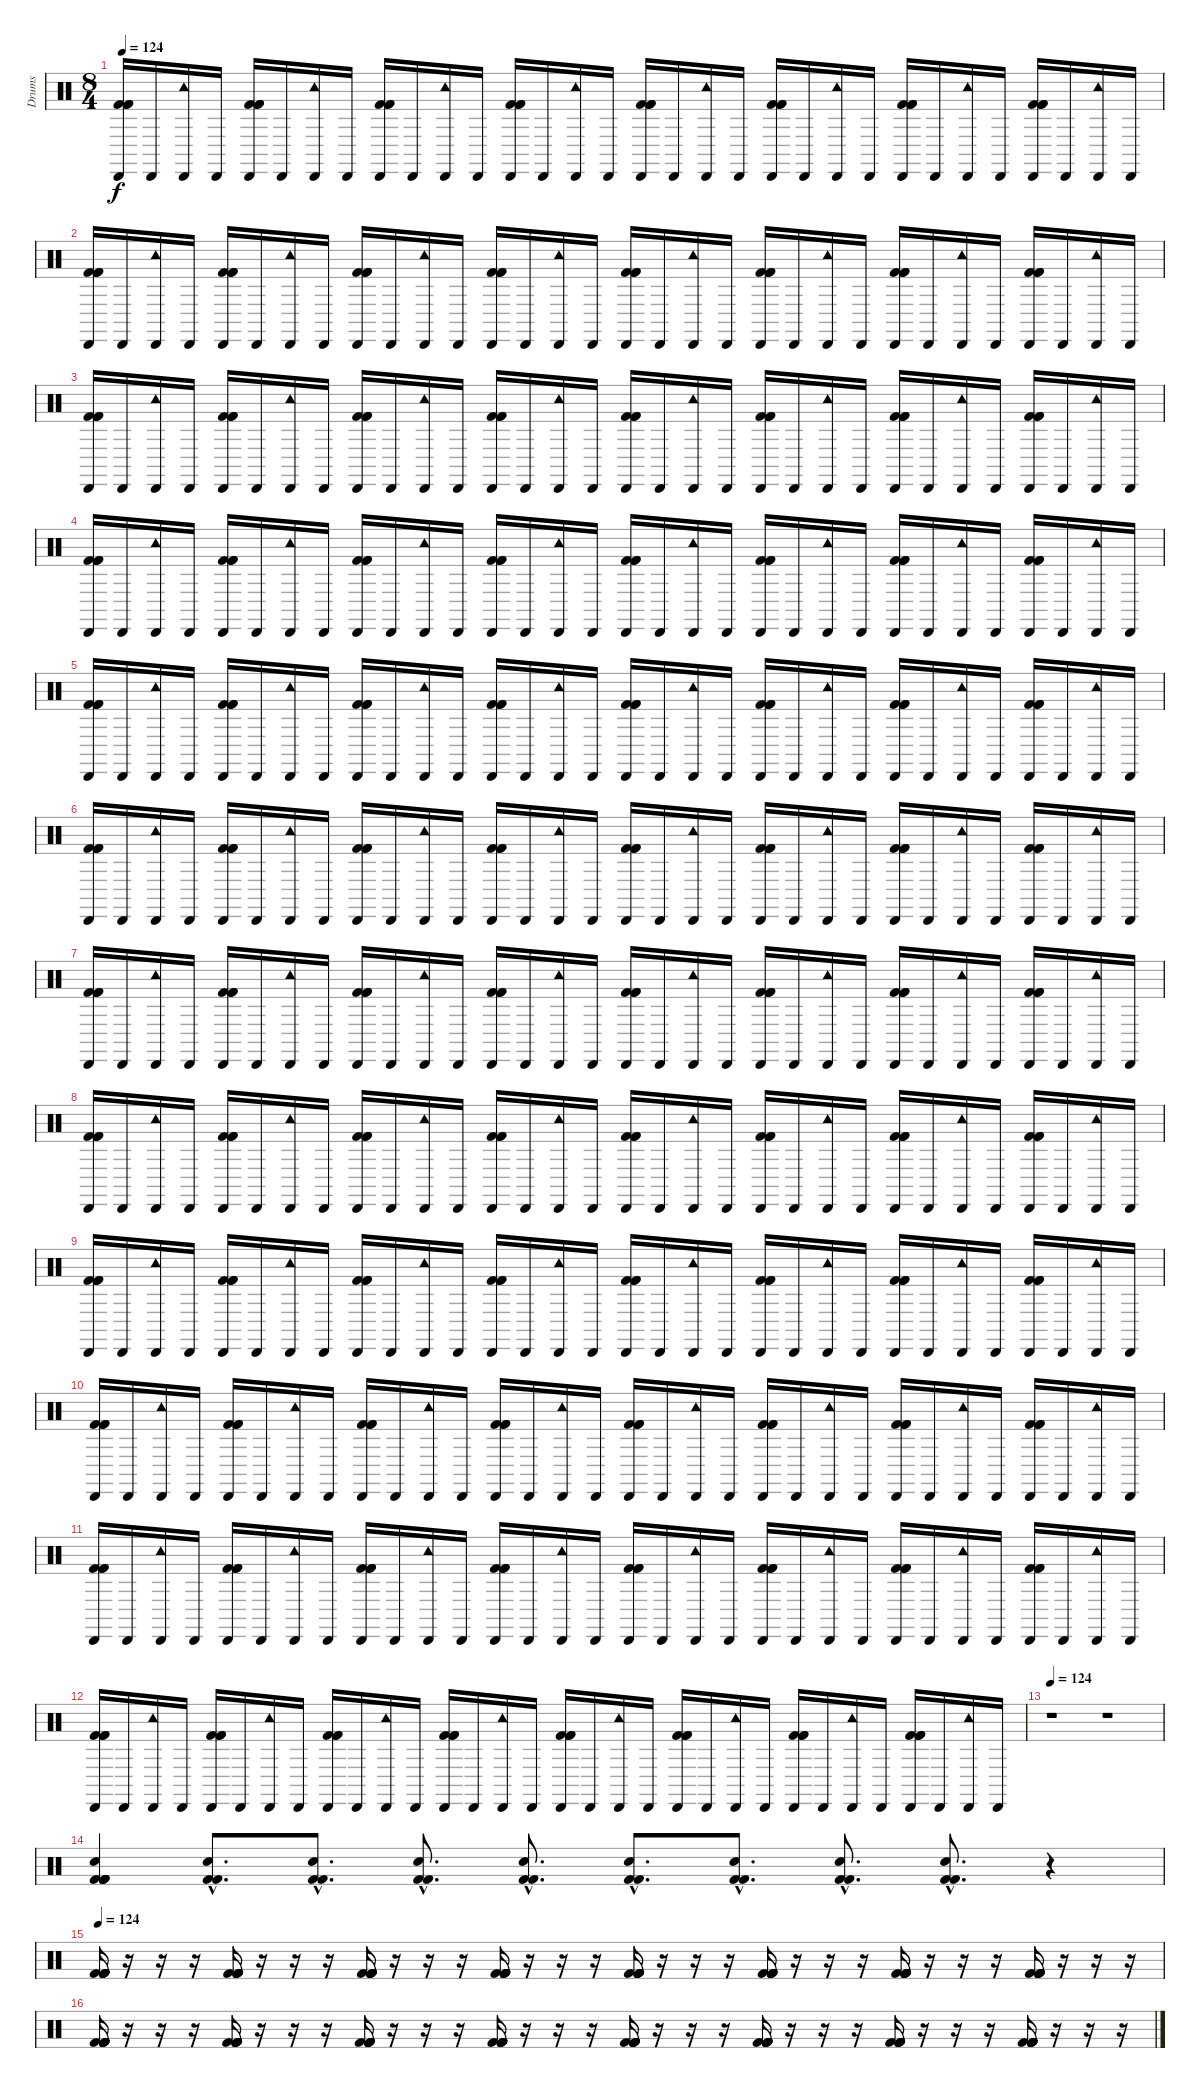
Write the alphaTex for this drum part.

\track ("Drums" "Drums") {instrument percussion}
\staff {score}
\articulation defaults
\ts (8 4)
\tempo 124
\clef neutral
\ks c
("Cabasa (hit)" "Kick (hit) 2" "Kick (hit) 2" "Kick (hit) 2").16{dy f volume 16} "Cabasa (hit)".16 ("Tambourine (hit)" "Cabasa (hit)").16 "Cabasa (hit)".16 ("Cabasa (hit)" "Kick (hit) 2" "Kick (hit) 2" "Kick (hit) 2").16 "Cabasa (hit)".16 ("Tambourine (hit)" "Cabasa (hit)").16 "Cabasa (hit)".16 ("Cabasa (hit)" "Kick (hit) 2" "Kick (hit) 2" "Kick (hit) 2").16 "Cabasa (hit)".16 ("Tambourine (hit)" "Cabasa (hit)").16 "Cabasa (hit)".16 ("Cabasa (hit)" "Kick (hit) 2" "Kick (hit) 2" "Kick (hit) 2").16 "Cabasa (hit)".16 ("Tambourine (hit)" "Cabasa (hit)").16 "Cabasa (hit)".16 ("Cabasa (hit)" "Kick (hit) 2" "Kick (hit) 2" "Kick (hit) 2").16 "Cabasa (hit)".16 ("Tambourine (hit)" "Cabasa (hit)").16 "Cabasa (hit)".16 ("Cabasa (hit)" "Kick (hit) 2" "Kick (hit) 2" "Kick (hit) 2").16 "Cabasa (hit)".16 ("Tambourine (hit)" "Cabasa (hit)").16 "Cabasa (hit)".16 ("Cabasa (hit)" "Kick (hit) 2" "Kick (hit) 2" "Kick (hit) 2").16 "Cabasa (hit)".16 ("Tambourine (hit)" "Cabasa (hit)").16 "Cabasa (hit)".16 ("Cabasa (hit)" "Kick (hit) 2" "Kick (hit) 2" "Kick (hit) 2").16 "Cabasa (hit)".16 ("Tambourine (hit)" "Cabasa (hit)").16 "Cabasa (hit)".16 |
("Cabasa (hit)" "Kick (hit) 2" "Kick (hit) 2" "Kick (hit) 2").16{volume 16} "Cabasa (hit)".16 ("Tambourine (hit)" "Cabasa (hit)").16 "Cabasa (hit)".16 ("Cabasa (hit)" "Kick (hit) 2" "Kick (hit) 2" "Kick (hit) 2").16 "Cabasa (hit)".16 ("Tambourine (hit)" "Cabasa (hit)").16 "Cabasa (hit)".16 ("Cabasa (hit)" "Kick (hit) 2" "Kick (hit) 2" "Kick (hit) 2").16 "Cabasa (hit)".16 ("Tambourine (hit)" "Cabasa (hit)").16 "Cabasa (hit)".16 ("Cabasa (hit)" "Kick (hit) 2" "Kick (hit) 2" "Kick (hit) 2").16 "Cabasa (hit)".16 ("Tambourine (hit)" "Cabasa (hit)").16 "Cabasa (hit)".16 ("Cabasa (hit)" "Kick (hit) 2" "Kick (hit) 2" "Kick (hit) 2").16 "Cabasa (hit)".16 ("Tambourine (hit)" "Cabasa (hit)").16 "Cabasa (hit)".16 ("Cabasa (hit)" "Kick (hit) 2" "Kick (hit) 2" "Kick (hit) 2").16 "Cabasa (hit)".16 ("Tambourine (hit)" "Cabasa (hit)").16 "Cabasa (hit)".16 ("Cabasa (hit)" "Kick (hit) 2" "Kick (hit) 2" "Kick (hit) 2").16 "Cabasa (hit)".16 ("Tambourine (hit)" "Cabasa (hit)").16 "Cabasa (hit)".16 ("Cabasa (hit)" "Kick (hit) 2" "Kick (hit) 2" "Kick (hit) 2").16 "Cabasa (hit)".16 ("Tambourine (hit)" "Cabasa (hit)").16 "Cabasa (hit)".16 |
("Cabasa (hit)" "Kick (hit) 2" "Kick (hit) 2" "Kick (hit) 2").16{volume 16} "Cabasa (hit)".16 ("Tambourine (hit)" "Cabasa (hit)").16 "Cabasa (hit)".16 ("Cabasa (hit)" "Kick (hit) 2" "Kick (hit) 2" "Kick (hit) 2").16 "Cabasa (hit)".16 ("Tambourine (hit)" "Cabasa (hit)").16 "Cabasa (hit)".16 ("Cabasa (hit)" "Kick (hit) 2" "Kick (hit) 2" "Kick (hit) 2").16 "Cabasa (hit)".16 ("Tambourine (hit)" "Cabasa (hit)").16 "Cabasa (hit)".16 ("Cabasa (hit)" "Kick (hit) 2" "Kick (hit) 2" "Kick (hit) 2").16 "Cabasa (hit)".16 ("Tambourine (hit)" "Cabasa (hit)").16 "Cabasa (hit)".16 ("Cabasa (hit)" "Kick (hit) 2" "Kick (hit) 2" "Kick (hit) 2").16 "Cabasa (hit)".16 ("Tambourine (hit)" "Cabasa (hit)").16 "Cabasa (hit)".16 ("Cabasa (hit)" "Kick (hit) 2" "Kick (hit) 2" "Kick (hit) 2").16 "Cabasa (hit)".16 ("Tambourine (hit)" "Cabasa (hit)").16 "Cabasa (hit)".16 ("Cabasa (hit)" "Kick (hit) 2" "Kick (hit) 2" "Kick (hit) 2").16 "Cabasa (hit)".16 ("Tambourine (hit)" "Cabasa (hit)").16 "Cabasa (hit)".16 ("Cabasa (hit)" "Kick (hit) 2" "Kick (hit) 2" "Kick (hit) 2").16 "Cabasa (hit)".16 ("Tambourine (hit)" "Cabasa (hit)").16 "Cabasa (hit)".16 |
("Cabasa (hit)" "Kick (hit) 2" "Kick (hit) 2" "Kick (hit) 2").16{volume 16} "Cabasa (hit)".16 ("Tambourine (hit)" "Cabasa (hit)").16 "Cabasa (hit)".16 ("Cabasa (hit)" "Kick (hit) 2" "Kick (hit) 2" "Kick (hit) 2").16 "Cabasa (hit)".16 ("Tambourine (hit)" "Cabasa (hit)").16 "Cabasa (hit)".16 ("Cabasa (hit)" "Kick (hit) 2" "Kick (hit) 2" "Kick (hit) 2").16 "Cabasa (hit)".16 ("Tambourine (hit)" "Cabasa (hit)").16 "Cabasa (hit)".16 ("Cabasa (hit)" "Kick (hit) 2" "Kick (hit) 2" "Kick (hit) 2").16 "Cabasa (hit)".16 ("Tambourine (hit)" "Cabasa (hit)").16 "Cabasa (hit)".16 ("Cabasa (hit)" "Kick (hit) 2" "Kick (hit) 2" "Kick (hit) 2").16 "Cabasa (hit)".16 ("Tambourine (hit)" "Cabasa (hit)").16 "Cabasa (hit)".16 ("Cabasa (hit)" "Kick (hit) 2" "Kick (hit) 2" "Kick (hit) 2").16 "Cabasa (hit)".16 ("Tambourine (hit)" "Cabasa (hit)").16 "Cabasa (hit)".16 ("Cabasa (hit)" "Kick (hit) 2" "Kick (hit) 2" "Kick (hit) 2").16 "Cabasa (hit)".16 ("Tambourine (hit)" "Cabasa (hit)").16 "Cabasa (hit)".16 ("Cabasa (hit)" "Kick (hit) 2" "Kick (hit) 2" "Kick (hit) 2").16 "Cabasa (hit)".16 ("Tambourine (hit)" "Cabasa (hit)").16 "Cabasa (hit)".16 |
("Cabasa (hit)" "Kick (hit) 2" "Kick (hit) 2" "Kick (hit) 2").16{volume 16} "Cabasa (hit)".16 ("Tambourine (hit)" "Cabasa (hit)").16 "Cabasa (hit)".16 ("Cabasa (hit)" "Kick (hit) 2" "Kick (hit) 2" "Kick (hit) 2").16 "Cabasa (hit)".16 ("Tambourine (hit)" "Cabasa (hit)").16 "Cabasa (hit)".16 ("Cabasa (hit)" "Kick (hit) 2" "Kick (hit) 2" "Kick (hit) 2").16 "Cabasa (hit)".16 ("Tambourine (hit)" "Cabasa (hit)").16 "Cabasa (hit)".16 ("Cabasa (hit)" "Kick (hit) 2" "Kick (hit) 2" "Kick (hit) 2").16 "Cabasa (hit)".16 ("Tambourine (hit)" "Cabasa (hit)").16 "Cabasa (hit)".16 ("Cabasa (hit)" "Kick (hit) 2" "Kick (hit) 2" "Kick (hit) 2").16 "Cabasa (hit)".16 ("Tambourine (hit)" "Cabasa (hit)").16 "Cabasa (hit)".16 ("Cabasa (hit)" "Kick (hit) 2" "Kick (hit) 2" "Kick (hit) 2").16 "Cabasa (hit)".16 ("Tambourine (hit)" "Cabasa (hit)").16 "Cabasa (hit)".16 ("Cabasa (hit)" "Kick (hit) 2" "Kick (hit) 2" "Kick (hit) 2").16 "Cabasa (hit)".16 ("Tambourine (hit)" "Cabasa (hit)").16 "Cabasa (hit)".16 ("Cabasa (hit)" "Kick (hit) 2" "Kick (hit) 2" "Kick (hit) 2").16 "Cabasa (hit)".16 ("Tambourine (hit)" "Cabasa (hit)").16 "Cabasa (hit)".16 |
("Cabasa (hit)" "Kick (hit) 2" "Kick (hit) 2" "Kick (hit) 2").16{volume 16} "Cabasa (hit)".16 ("Tambourine (hit)" "Cabasa (hit)").16 "Cabasa (hit)".16 ("Cabasa (hit)" "Kick (hit) 2" "Kick (hit) 2" "Kick (hit) 2").16 "Cabasa (hit)".16 ("Tambourine (hit)" "Cabasa (hit)").16 "Cabasa (hit)".16 ("Cabasa (hit)" "Kick (hit) 2" "Kick (hit) 2" "Kick (hit) 2").16 "Cabasa (hit)".16 ("Tambourine (hit)" "Cabasa (hit)").16 "Cabasa (hit)".16 ("Cabasa (hit)" "Kick (hit) 2" "Kick (hit) 2" "Kick (hit) 2").16 "Cabasa (hit)".16 ("Tambourine (hit)" "Cabasa (hit)").16 "Cabasa (hit)".16 ("Cabasa (hit)" "Kick (hit) 2" "Kick (hit) 2" "Kick (hit) 2").16 "Cabasa (hit)".16 ("Tambourine (hit)" "Cabasa (hit)").16 "Cabasa (hit)".16 ("Cabasa (hit)" "Kick (hit) 2" "Kick (hit) 2" "Kick (hit) 2").16 "Cabasa (hit)".16 ("Tambourine (hit)" "Cabasa (hit)").16 "Cabasa (hit)".16 ("Cabasa (hit)" "Kick (hit) 2" "Kick (hit) 2" "Kick (hit) 2").16 "Cabasa (hit)".16 ("Tambourine (hit)" "Cabasa (hit)").16 "Cabasa (hit)".16 ("Cabasa (hit)" "Kick (hit) 2" "Kick (hit) 2" "Kick (hit) 2").16 "Cabasa (hit)".16 ("Tambourine (hit)" "Cabasa (hit)").16 "Cabasa (hit)".16 |
("Cabasa (hit)" "Kick (hit) 2" "Kick (hit) 2" "Kick (hit) 2").16{volume 16} "Cabasa (hit)".16 ("Tambourine (hit)" "Cabasa (hit)").16 "Cabasa (hit)".16 ("Cabasa (hit)" "Kick (hit) 2" "Kick (hit) 2" "Kick (hit) 2").16 "Cabasa (hit)".16 ("Tambourine (hit)" "Cabasa (hit)").16 "Cabasa (hit)".16 ("Cabasa (hit)" "Kick (hit) 2" "Kick (hit) 2" "Kick (hit) 2").16 "Cabasa (hit)".16 ("Tambourine (hit)" "Cabasa (hit)").16 "Cabasa (hit)".16 ("Cabasa (hit)" "Kick (hit) 2" "Kick (hit) 2" "Kick (hit) 2").16 "Cabasa (hit)".16 ("Tambourine (hit)" "Cabasa (hit)").16 "Cabasa (hit)".16 ("Cabasa (hit)" "Kick (hit) 2" "Kick (hit) 2" "Kick (hit) 2").16 "Cabasa (hit)".16 ("Tambourine (hit)" "Cabasa (hit)").16 "Cabasa (hit)".16 ("Cabasa (hit)" "Kick (hit) 2" "Kick (hit) 2" "Kick (hit) 2").16 "Cabasa (hit)".16 ("Tambourine (hit)" "Cabasa (hit)").16 "Cabasa (hit)".16 ("Cabasa (hit)" "Kick (hit) 2" "Kick (hit) 2" "Kick (hit) 2").16 "Cabasa (hit)".16 ("Tambourine (hit)" "Cabasa (hit)").16 "Cabasa (hit)".16 ("Cabasa (hit)" "Kick (hit) 2" "Kick (hit) 2" "Kick (hit) 2").16 "Cabasa (hit)".16 ("Tambourine (hit)" "Cabasa (hit)").16 "Cabasa (hit)".16 |
("Cabasa (hit)" "Kick (hit) 2" "Kick (hit) 2" "Kick (hit) 2").16{volume 16} "Cabasa (hit)".16 ("Tambourine (hit)" "Cabasa (hit)").16 "Cabasa (hit)".16 ("Cabasa (hit)" "Kick (hit) 2" "Kick (hit) 2" "Kick (hit) 2").16 "Cabasa (hit)".16 ("Tambourine (hit)" "Cabasa (hit)").16 "Cabasa (hit)".16 ("Cabasa (hit)" "Kick (hit) 2" "Kick (hit) 2" "Kick (hit) 2").16 "Cabasa (hit)".16 ("Tambourine (hit)" "Cabasa (hit)").16 "Cabasa (hit)".16 ("Cabasa (hit)" "Kick (hit) 2" "Kick (hit) 2" "Kick (hit) 2").16 "Cabasa (hit)".16 ("Tambourine (hit)" "Cabasa (hit)").16 "Cabasa (hit)".16 ("Cabasa (hit)" "Kick (hit) 2" "Kick (hit) 2" "Kick (hit) 2").16 "Cabasa (hit)".16 ("Tambourine (hit)" "Cabasa (hit)").16 "Cabasa (hit)".16 ("Cabasa (hit)" "Kick (hit) 2" "Kick (hit) 2" "Kick (hit) 2").16 "Cabasa (hit)".16 ("Tambourine (hit)" "Cabasa (hit)").16 "Cabasa (hit)".16 ("Cabasa (hit)" "Kick (hit) 2" "Kick (hit) 2" "Kick (hit) 2").16 "Cabasa (hit)".16 ("Tambourine (hit)" "Cabasa (hit)").16 "Cabasa (hit)".16 ("Cabasa (hit)" "Kick (hit) 2" "Kick (hit) 2" "Kick (hit) 2").16 "Cabasa (hit)".16 ("Tambourine (hit)" "Cabasa (hit)").16 "Cabasa (hit)".16 |
("Cabasa (hit)" "Kick (hit) 2" "Kick (hit) 2" "Kick (hit) 2").16{volume 16} "Cabasa (hit)".16 ("Tambourine (hit)" "Cabasa (hit)").16 "Cabasa (hit)".16 ("Cabasa (hit)" "Kick (hit) 2" "Kick (hit) 2" "Kick (hit) 2").16 "Cabasa (hit)".16 ("Tambourine (hit)" "Cabasa (hit)").16 "Cabasa (hit)".16 ("Cabasa (hit)" "Kick (hit) 2" "Kick (hit) 2" "Kick (hit) 2").16 "Cabasa (hit)".16 ("Tambourine (hit)" "Cabasa (hit)").16 "Cabasa (hit)".16 ("Cabasa (hit)" "Kick (hit) 2" "Kick (hit) 2" "Kick (hit) 2").16 "Cabasa (hit)".16 ("Tambourine (hit)" "Cabasa (hit)").16 "Cabasa (hit)".16 ("Cabasa (hit)" "Kick (hit) 2" "Kick (hit) 2" "Kick (hit) 2").16 "Cabasa (hit)".16 ("Tambourine (hit)" "Cabasa (hit)").16 "Cabasa (hit)".16 ("Cabasa (hit)" "Kick (hit) 2" "Kick (hit) 2" "Kick (hit) 2").16 "Cabasa (hit)".16 ("Tambourine (hit)" "Cabasa (hit)").16 "Cabasa (hit)".16 ("Cabasa (hit)" "Kick (hit) 2" "Kick (hit) 2" "Kick (hit) 2").16 "Cabasa (hit)".16 ("Tambourine (hit)" "Cabasa (hit)").16 "Cabasa (hit)".16 ("Cabasa (hit)" "Kick (hit) 2" "Kick (hit) 2" "Kick (hit) 2").16 "Cabasa (hit)".16 ("Tambourine (hit)" "Cabasa (hit)").16 "Cabasa (hit)".16 |
("Cabasa (hit)" "Kick (hit) 2" "Kick (hit) 2" "Kick (hit) 2").16{volume 16} "Cabasa (hit)".16 ("Tambourine (hit)" "Cabasa (hit)").16 "Cabasa (hit)".16 ("Cabasa (hit)" "Kick (hit) 2" "Kick (hit) 2" "Kick (hit) 2").16 "Cabasa (hit)".16 ("Tambourine (hit)" "Cabasa (hit)").16 "Cabasa (hit)".16 ("Cabasa (hit)" "Kick (hit) 2" "Kick (hit) 2" "Kick (hit) 2").16 "Cabasa (hit)".16 ("Tambourine (hit)" "Cabasa (hit)").16 "Cabasa (hit)".16 ("Cabasa (hit)" "Kick (hit) 2" "Kick (hit) 2" "Kick (hit) 2").16 "Cabasa (hit)".16 ("Tambourine (hit)" "Cabasa (hit)").16 "Cabasa (hit)".16 ("Cabasa (hit)" "Kick (hit) 2" "Kick (hit) 2" "Kick (hit) 2").16 "Cabasa (hit)".16 ("Tambourine (hit)" "Cabasa (hit)").16 "Cabasa (hit)".16 ("Cabasa (hit)" "Kick (hit) 2" "Kick (hit) 2" "Kick (hit) 2").16 "Cabasa (hit)".16 ("Tambourine (hit)" "Cabasa (hit)").16 "Cabasa (hit)".16 ("Cabasa (hit)" "Kick (hit) 2" "Kick (hit) 2" "Kick (hit) 2").16 "Cabasa (hit)".16 ("Tambourine (hit)" "Cabasa (hit)").16 "Cabasa (hit)".16 ("Cabasa (hit)" "Kick (hit) 2" "Kick (hit) 2" "Kick (hit) 2").16 "Cabasa (hit)".16 ("Tambourine (hit)" "Cabasa (hit)").16 "Cabasa (hit)".16 |
("Cabasa (hit)" "Kick (hit) 2" "Kick (hit) 2" "Kick (hit) 2").16{volume 16} "Cabasa (hit)".16 ("Tambourine (hit)" "Cabasa (hit)").16 "Cabasa (hit)".16 ("Cabasa (hit)" "Kick (hit) 2" "Kick (hit) 2" "Kick (hit) 2").16 "Cabasa (hit)".16 ("Tambourine (hit)" "Cabasa (hit)").16 "Cabasa (hit)".16 ("Cabasa (hit)" "Kick (hit) 2" "Kick (hit) 2" "Kick (hit) 2").16 "Cabasa (hit)".16 ("Tambourine (hit)" "Cabasa (hit)").16 "Cabasa (hit)".16 ("Cabasa (hit)" "Kick (hit) 2" "Kick (hit) 2" "Kick (hit) 2").16 "Cabasa (hit)".16 ("Tambourine (hit)" "Cabasa (hit)").16 "Cabasa (hit)".16 ("Cabasa (hit)" "Kick (hit) 2" "Kick (hit) 2" "Kick (hit) 2").16 "Cabasa (hit)".16 ("Tambourine (hit)" "Cabasa (hit)").16 "Cabasa (hit)".16 ("Cabasa (hit)" "Kick (hit) 2" "Kick (hit) 2" "Kick (hit) 2").16 "Cabasa (hit)".16 ("Tambourine (hit)" "Cabasa (hit)").16 "Cabasa (hit)".16 ("Cabasa (hit)" "Kick (hit) 2" "Kick (hit) 2" "Kick (hit) 2").16 "Cabasa (hit)".16 ("Tambourine (hit)" "Cabasa (hit)").16 "Cabasa (hit)".16 ("Cabasa (hit)" "Kick (hit) 2" "Kick (hit) 2" "Kick (hit) 2").16 "Cabasa (hit)".16 ("Tambourine (hit)" "Cabasa (hit)").16 "Cabasa (hit)".16 |
("Cabasa (hit)" "Kick (hit) 2" "Kick (hit) 2" "Kick (hit) 2").16{volume 16} "Cabasa (hit)".16 ("Tambourine (hit)" "Cabasa (hit)").16 "Cabasa (hit)".16 ("Cabasa (hit)" "Kick (hit) 2" "Kick (hit) 2" "Kick (hit) 2").16 "Cabasa (hit)".16 ("Tambourine (hit)" "Cabasa (hit)").16 "Cabasa (hit)".16 ("Cabasa (hit)" "Kick (hit) 2" "Kick (hit) 2" "Kick (hit) 2").16 "Cabasa (hit)".16 ("Tambourine (hit)" "Cabasa (hit)").16 "Cabasa (hit)".16 ("Cabasa (hit)" "Kick (hit) 2" "Kick (hit) 2" "Kick (hit) 2").16 "Cabasa (hit)".16 ("Tambourine (hit)" "Cabasa (hit)").16 "Cabasa (hit)".16 ("Cabasa (hit)" "Kick (hit) 2" "Kick (hit) 2" "Kick (hit) 2").16 "Cabasa (hit)".16 ("Tambourine (hit)" "Cabasa (hit)").16 "Cabasa (hit)".16 ("Cabasa (hit)" "Kick (hit) 2" "Kick (hit) 2" "Kick (hit) 2").16 "Cabasa (hit)".16 ("Tambourine (hit)" "Cabasa (hit)").16 "Cabasa (hit)".16 ("Cabasa (hit)" "Kick (hit) 2" "Kick (hit) 2" "Kick (hit) 2").16 "Cabasa (hit)".16 ("Tambourine (hit)" "Cabasa (hit)").16 "Cabasa (hit)".16 ("Cabasa (hit)" "Kick (hit) 2" "Kick (hit) 2" "Kick (hit) 2").16 "Cabasa (hit)".16 ("Tambourine (hit)" "Cabasa (hit)").16 "Cabasa (hit)".16 |
\tempo 124
r.1 r.1 |
("Electric Snare (hit)" "Kick (hit) 2" "Kick (hit) 2" "Kick (hit) 2" "Kick (hit) 2" "Kick (hit) 2").4{volume 16} ("Electric Snare (hit)"{hac} "Kick (hit) 2"{hac} "Kick (hit) 2"{hac}).8{d volume 13 balance 1} ("Electric Snare (hit)"{hac} "Kick (hit) 2"{hac} "Kick (hit) 2"{hac}).8{d volume 11 balance 15} ("Electric Snare (hit)"{hac} "Kick (hit) 2"{hac} "Kick (hit) 2"{hac}).8{d volume 9 balance 1} ("Electric Snare (hit)"{hac} "Kick (hit) 2"{hac} "Kick (hit) 2"{hac}).8{d volume 7 balance 15} ("Electric Snare (hit)"{hac} "Kick (hit) 2"{hac} "Kick (hit) 2"{hac}).8{d volume 5 balance 1} ("Electric Snare (hit)"{hac} "Kick (hit) 2"{hac} "Kick (hit) 2"{hac}).8{d volume 3 balance 15} ("Electric Snare (hit)"{hac} "Kick (hit) 2"{hac} "Kick (hit) 2"{hac}).8{d volume 1 balance 1} ("Electric Snare (hit)"{hac} "Kick (hit) 2"{hac} "Kick (hit) 2"{hac}).8{d volume 0 balance 15} r.4 |
\tempo 124
("Kick (hit) 2" "Kick (hit) 2" "Kick (hit) 2" "Kick (hit) 2" "Kick (hit) 2" "Kick (hit) 2").16{volume 16 balance 8} r.16 r.16 r.16 ("Kick (hit) 2" "Kick (hit) 2" "Kick (hit) 2" "Kick (hit) 2" "Kick (hit) 2" "Kick (hit) 2").16 r.16 r.16 r.16 ("Kick (hit) 2" "Kick (hit) 2" "Kick (hit) 2" "Kick (hit) 2" "Kick (hit) 2" "Kick (hit) 2").16 r.16 r.16 r.16 ("Kick (hit) 2" "Kick (hit) 2" "Kick (hit) 2" "Kick (hit) 2" "Kick (hit) 2" "Kick (hit) 2").16 r.16 r.16 r.16 ("Kick (hit) 2" "Kick (hit) 2" "Kick (hit) 2" "Kick (hit) 2" "Kick (hit) 2" "Kick (hit) 2").16 r.16 r.16 r.16 ("Kick (hit) 2" "Kick (hit) 2" "Kick (hit) 2" "Kick (hit) 2" "Kick (hit) 2" "Kick (hit) 2").16 r.16 r.16 r.16 ("Kick (hit) 2" "Kick (hit) 2" "Kick (hit) 2" "Kick (hit) 2" "Kick (hit) 2" "Kick (hit) 2").16 r.16 r.16 r.16 ("Kick (hit) 2" "Kick (hit) 2" "Kick (hit) 2" "Kick (hit) 2" "Kick (hit) 2" "Kick (hit) 2").16 r.16 r.16 r.16 |
("Kick (hit) 2" "Kick (hit) 2" "Kick (hit) 2" "Kick (hit) 2" "Kick (hit) 2" "Kick (hit) 2").16{volume 16 balance 8} r.16 r.16 r.16 ("Kick (hit) 2" "Kick (hit) 2" "Kick (hit) 2" "Kick (hit) 2" "Kick (hit) 2" "Kick (hit) 2").16{volume 15 balance 8} r.16 r.16 r.16 ("Kick (hit) 2" "Kick (hit) 2" "Kick (hit) 2" "Kick (hit) 2" "Kick (hit) 2" "Kick (hit) 2").16{volume 15 balance 8} r.16 r.16 r.16 ("Kick (hit) 2" "Kick (hit) 2" "Kick (hit) 2" "Kick (hit) 2" "Kick (hit) 2" "Kick (hit) 2").16{volume 15 balance 8} r.16 r.16 r.16 ("Kick (hit) 2" "Kick (hit) 2" "Kick (hit) 2" "Kick (hit) 2" "Kick (hit) 2" "Kick (hit) 2").16{volume 15 balance 8} r.16 r.16 r.16 ("Kick (hit) 2" "Kick (hit) 2" "Kick (hit) 2" "Kick (hit) 2" "Kick (hit) 2" "Kick (hit) 2").16{volume 15 balance 8} r.16 r.16 r.16 ("Kick (hit) 2" "Kick (hit) 2" "Kick (hit) 2" "Kick (hit) 2" "Kick (hit) 2" "Kick (hit) 2").16{volume 15 balance 8} r.16 r.16 r.16 ("Kick (hit) 2" "Kick (hit) 2" "Kick (hit) 2" "Kick (hit) 2" "Kick (hit) 2" "Kick (hit) 2").16{volume 15 balance 8} r.16 r.16 r.16
